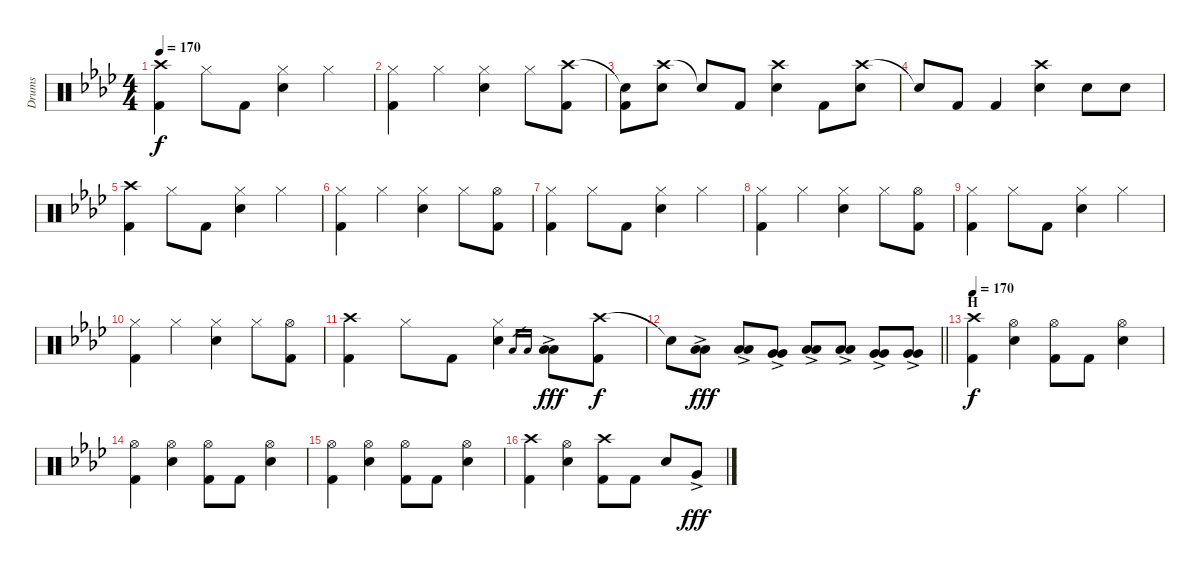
\track ("Drums" "Drums") {instrument percussion}
\staff {score}
\articulation defaults
\ts (4 4)
\tempo 170
\clef neutral
\ks ab
("Crash high (hit)" "Kick (hit) 2").4{dy f} "Hi-Hat (closed)".8 "Kick (hit) 2".8 ("Hi-Hat (closed)" "Snare (hit) 2").4 "Hi-Hat (closed)".4 |
("Hi-Hat (closed)" "Kick (hit) 2").4 "Hi-Hat (closed)".4 ("Hi-Hat (closed)" "Snare (hit) 2").4 "Hi-Hat (closed)".8 ("Crash high (hit)" "Kick (hit) 2").8 |
("Snare (hit)"{t} "Kick (hit) 2").8 ("Crash high (hit)" "Snare (hit) 2").8 "Snare (hit)"{t}.8 "Kick (hit) 2".8 ("Crash high (hit)" "Snare (hit) 2").4 "Kick (hit) 2".8 ("Crash high (hit)" "Snare (hit) 2").8 |
"Snare (hit)"{t}.8 "Kick (hit) 2".8 "Kick (hit) 2".4 ("Crash high (hit)" "Snare (hit) 2").4 "Snare (hit) 2".8 "Snare (hit) 2".8 |
("Crash high (hit)" "Kick (hit) 2").4 "Hi-Hat (closed)".8 "Kick (hit) 2".8 ("Hi-Hat (closed)" "Snare (hit) 2").4 "Hi-Hat (closed)".4 |
("Hi-Hat (closed)" "Kick (hit) 2").4 "Hi-Hat (closed)".4 ("Hi-Hat (closed)" "Snare (hit) 2").4 "Hi-Hat (closed)".8 ("Hi-Hat (open)" "Kick (hit) 2").8 |
("Hi-Hat (closed)" "Kick (hit) 2").4 "Hi-Hat (closed)".8 "Kick (hit) 2".8 ("Hi-Hat (closed)" "Snare (hit) 2").4 "Hi-Hat (closed)".4 |
("Hi-Hat (closed)" "Kick (hit) 2").4 "Hi-Hat (closed)".4 ("Hi-Hat (closed)" "Snare (hit) 2").4 "Hi-Hat (closed)".8 ("Hi-Hat (open)" "Kick (hit) 2").8 |
("Hi-Hat (closed)" "Kick (hit) 2").4 "Hi-Hat (closed)".8 "Kick (hit) 2".8 ("Hi-Hat (closed)" "Snare (hit) 2").4 "Hi-Hat (closed)".4 |
("Hi-Hat (closed)" "Kick (hit) 2").4 "Hi-Hat (closed)".4 ("Hi-Hat (closed)" "Snare (hit) 2").4 "Hi-Hat (closed)".8 ("Hi-Hat (open)" "Kick (hit) 2").8 |
("Crash high (hit)" "Kick (hit) 2").4 "Hi-Hat (closed)".8 "Kick (hit) 2".8 ("Hi-Hat (closed)" "Snare (hit) 2").4 "Low Tom (hit)".16{gr} "Low Tom (hit)".16{gr} ("Low Tom (hit)"{ac} "Low Tom (hit)"{ac}).8{dy fff} ("Crash high (hit)" "Kick (hit) 2").8{dy f} |
\barLineRight lightlight "Snare (hit)"{t}.8
("Low Tom (hit)"{ac} "Low Tom (hit)"{ac}).8{dy fff} ("Low Tom (hit)"{ac} "Low Tom (hit)"{ac}).8 ("Very Low Tom (hit)"{ac} "Very Low Tom (hit)"{ac}).8 ("Low Tom (hit)"{ac} "Low Tom (hit)"{ac}).8 ("Low Tom (hit)"{ac} "Low Tom (hit)"{ac}).8 ("Very Low Tom (hit)"{ac} "Very Low Tom (hit)"{ac}).8 ("Very Low Tom (hit)"{ac} "Very Low Tom (hit)"{ac}).8 |
\section ("" "H")
\tempo 170
("Crash high (hit)" "Kick (hit) 2").4{dy f} ("Hi-Hat (open)" "Snare (hit) 2").4 ("Hi-Hat (open)" "Kick (hit) 2").8 "Kick (hit) 2".8 ("Hi-Hat (open)" "Snare (hit) 2").4 |
("Hi-Hat (open)" "Kick (hit) 2").4 ("Hi-Hat (open)" "Snare (hit) 2").4 ("Hi-Hat (open)" "Kick (hit) 2").8 "Kick (hit) 2".8 ("Hi-Hat (open)" "Snare (hit) 2").4 |
("Hi-Hat (open)" "Kick (hit) 2").4 ("Hi-Hat (open)" "Snare (hit) 2").4 ("Hi-Hat (open)" "Kick (hit) 2").8 "Kick (hit) 2".8 ("Hi-Hat (open)" "Snare (hit) 2").4 |
("Crash high (hit)" "Kick (hit) 2").4 ("Hi-Hat (open)" "Snare (hit) 2").4 ("Crash high (hit)" "Kick (hit) 2").8 "Kick (hit) 2".8 "Snare (hit) 2".8 "Very Low Tom (hit)"{ac}.8{dy fff}
